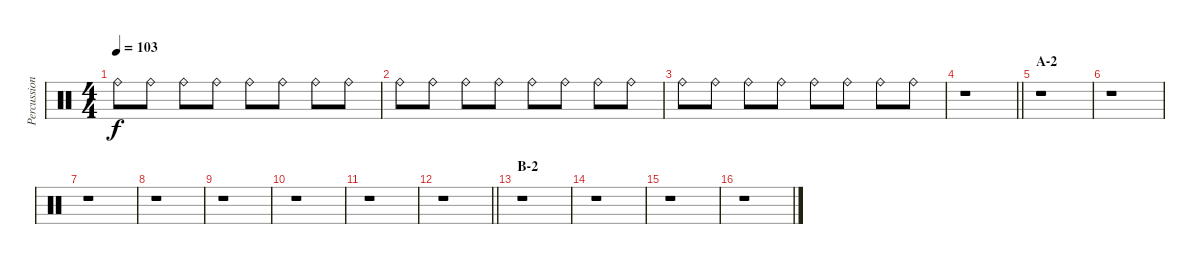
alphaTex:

\track ("Percussion" "Percussion") {instrument percussion}
\staff {score}
\articulation defaults
\ts (4 4)
\tempo 103
\clef neutral
\ks c "Ride (bell)".8{dy f} "Ride (bell)".8 "Ride (bell)".8 "Ride (bell)".8 "Ride (bell)".8 "Ride (bell)".8 "Ride (bell)".8 "Ride (bell)".8
|
"Ride (bell)".8 "Ride (bell)".8 "Ride (bell)".8 "Ride (bell)".8 "Ride (bell)".8 "Ride (bell)".8 "Ride (bell)".8 "Ride (bell)".8 |
"Ride (bell)".8 "Ride (bell)".8 "Ride (bell)".8 "Ride (bell)".8 "Ride (bell)".8 "Ride (bell)".8 "Ride (bell)".8 "Ride (bell)".8 |
\barLineRight lightlight
r.1 |
\section ("" "A-2")
r.1 |
r.1 |
r.1 |
r.1 |
r.1 |
r.1 |
r.1 |
\barLineRight lightlight
r.1 |
\section ("" "B-2")
r.1 |
r.1 |
r.1 |
r.1
